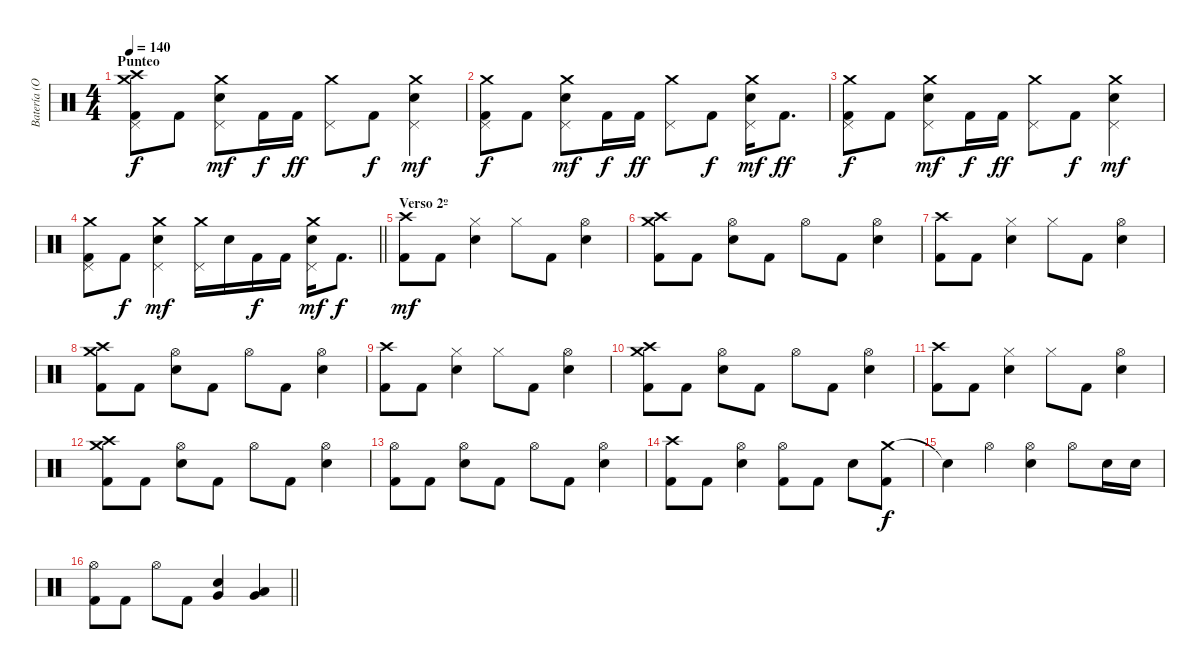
\track ("Batería (Oxi)" "Batería (O") {instrument percussion}
\staff {score}
\articulation defaults
\ts (4 4)
\section ("" "Punteo")
\tempo 140
\clef neutral
\ks c
("Crash medium (hit)" "Crash high (hit)" "Pedal Hi-Hat (hit)" "Kick (hit) 2").8{dy f} "Kick (hit) 2".8 ("Crash medium (hit)" "Pedal Hi-Hat (hit)" "Electric Snare (hit)").8{dy mf} "Kick (hit) 2".16{dy f} "Kick (hit) 2".16{dy ff} ("Crash medium (hit)" "Pedal Hi-Hat (hit)").8 "Kick (hit) 2".8{dy f} ("Crash medium (hit)" "Pedal Hi-Hat (hit)" "Electric Snare (hit)").4{dy mf} |
("Crash medium (hit)" "Pedal Hi-Hat (hit)" "Kick (hit) 2").8{dy f} "Kick (hit) 2".8 ("Crash medium (hit)" "Pedal Hi-Hat (hit)" "Electric Snare (hit)").8{dy mf} "Kick (hit) 2".16{dy f} "Kick (hit) 2".16{dy ff} ("Crash medium (hit)" "Pedal Hi-Hat (hit)").8 "Kick (hit) 2".8{dy f} ("Crash medium (hit)" "Pedal Hi-Hat (hit)" "Electric Snare (hit)").16{dy mf} "Kick (hit) 2".8{d dy ff} |
("Crash medium (hit)" "Pedal Hi-Hat (hit)" "Kick (hit) 2").8{dy f} "Kick (hit) 2".8 ("Crash medium (hit)" "Pedal Hi-Hat (hit)" "Electric Snare (hit)").8{dy mf} "Kick (hit) 2".16{dy f} "Kick (hit) 2".16{dy ff} ("Crash medium (hit)" "Pedal Hi-Hat (hit)").8 "Kick (hit) 2".8{dy f} ("Crash medium (hit)" "Pedal Hi-Hat (hit)" "Electric Snare (hit)").4{dy mf} |
\barLineRight lightlight
("Crash medium (hit)" "Pedal Hi-Hat (hit)" "Kick (hit) 2").8 "Kick (hit) 2".8{dy f} ("Crash medium (hit)" "Pedal Hi-Hat (hit)" "Electric Snare (hit)").4{dy mf} ("Crash medium (hit)" "Pedal Hi-Hat (hit)").16 "Electric Snare (hit)".16 "Kick (hit) 2".16{dy f} "Kick (hit) 2".16 ("Crash medium (hit)" "Pedal Hi-Hat (hit)" "Electric Snare (hit)").16{dy mf} "Kick (hit) 2".8{d dy f} |
\section ("" "Verso 2º")
("Crash high (hit)" "Kick (hit) 2").8{dy mf} "Kick (hit) 2".8 ("Hi-Hat (closed)" "Electric Snare (hit)").4 "Hi-Hat (closed)".8 "Kick (hit) 2".8 ("Hi-Hat (open)" "Electric Snare (hit)").4 |
("Crash medium (hit)" "Crash high (hit)" "Kick (hit) 2").8 "Kick (hit) 2".8 ("Hi-Hat (open)" "Electric Snare (hit)").8 "Kick (hit) 2".8 "Hi-Hat (open)".8 "Kick (hit) 2".8 ("Hi-Hat (open)" "Electric Snare (hit)").4 |
("Crash high (hit)" "Kick (hit) 2").8 "Kick (hit) 2".8 ("Hi-Hat (closed)" "Electric Snare (hit)").4 "Hi-Hat (closed)".8 "Kick (hit) 2".8 ("Hi-Hat (open)" "Electric Snare (hit)").4 |
("Crash medium (hit)" "Crash high (hit)" "Kick (hit) 2").8 "Kick (hit) 2".8 ("Hi-Hat (open)" "Electric Snare (hit)").8 "Kick (hit) 2".8 "Hi-Hat (open)".8 "Kick (hit) 2".8 ("Hi-Hat (open)" "Electric Snare (hit)").4 |
("Crash high (hit)" "Kick (hit) 2").8 "Kick (hit) 2".8 ("Hi-Hat (closed)" "Electric Snare (hit)").4 "Hi-Hat (closed)".8 "Kick (hit) 2".8 ("Hi-Hat (open)" "Electric Snare (hit)").4 |
("Crash medium (hit)" "Crash high (hit)" "Kick (hit) 2").8 "Kick (hit) 2".8 ("Hi-Hat (open)" "Electric Snare (hit)").8 "Kick (hit) 2".8 "Hi-Hat (open)".8 "Kick (hit) 2".8 ("Hi-Hat (open)" "Electric Snare (hit)").4 |
("Crash high (hit)" "Kick (hit) 2").8 "Kick (hit) 2".8 ("Hi-Hat (closed)" "Electric Snare (hit)").4 "Hi-Hat (closed)".8 "Kick (hit) 2".8 ("Hi-Hat (open)" "Electric Snare (hit)").4 |
("Crash medium (hit)" "Crash high (hit)" "Kick (hit) 2").8 "Kick (hit) 2".8 ("Hi-Hat (open)" "Electric Snare (hit)").8 "Kick (hit) 2".8 "Hi-Hat (open)".8 "Kick (hit) 2".8 ("Hi-Hat (open)" "Electric Snare (hit)").4 |
("Hi-Hat (open)" "Kick (hit) 2").8 "Kick (hit) 2".8 ("Hi-Hat (open)" "Electric Snare (hit)").8 "Kick (hit) 2".8 "Hi-Hat (open)".8 "Kick (hit) 2".8 ("Hi-Hat (open)" "Electric Snare (hit)").4 |
("Crash high (hit)" "Kick (hit) 2").8 "Kick (hit) 2".8 ("Hi-Hat (open)" "Electric Snare (hit)").4 ("Hi-Hat (open)" "Kick (hit) 2").8 "Kick (hit) 2".8 "Electric Snare (hit)".8 ("Crash medium (hit)" "Kick (hit) 2").8{dy f} |
"Snare (hit)"{t}.4 "Hi-Hat (open)".4 ("Hi-Hat (open)" "Electric Snare (hit)").4 "Hi-Hat (open)".8 "Electric Snare (hit)".16 "Electric Snare (hit)".16 |
\barLineRight lightlight
("Hi-Hat (open)" "Kick (hit) 2").8 "Kick (hit) 2".8 "Hi-Hat (open)".8 "Kick (hit) 2".8 ("Very Low Tom (hit)" "Electric Snare (hit)").4 ("Very Low Tom (hit)" "Low Tom (hit)").4
